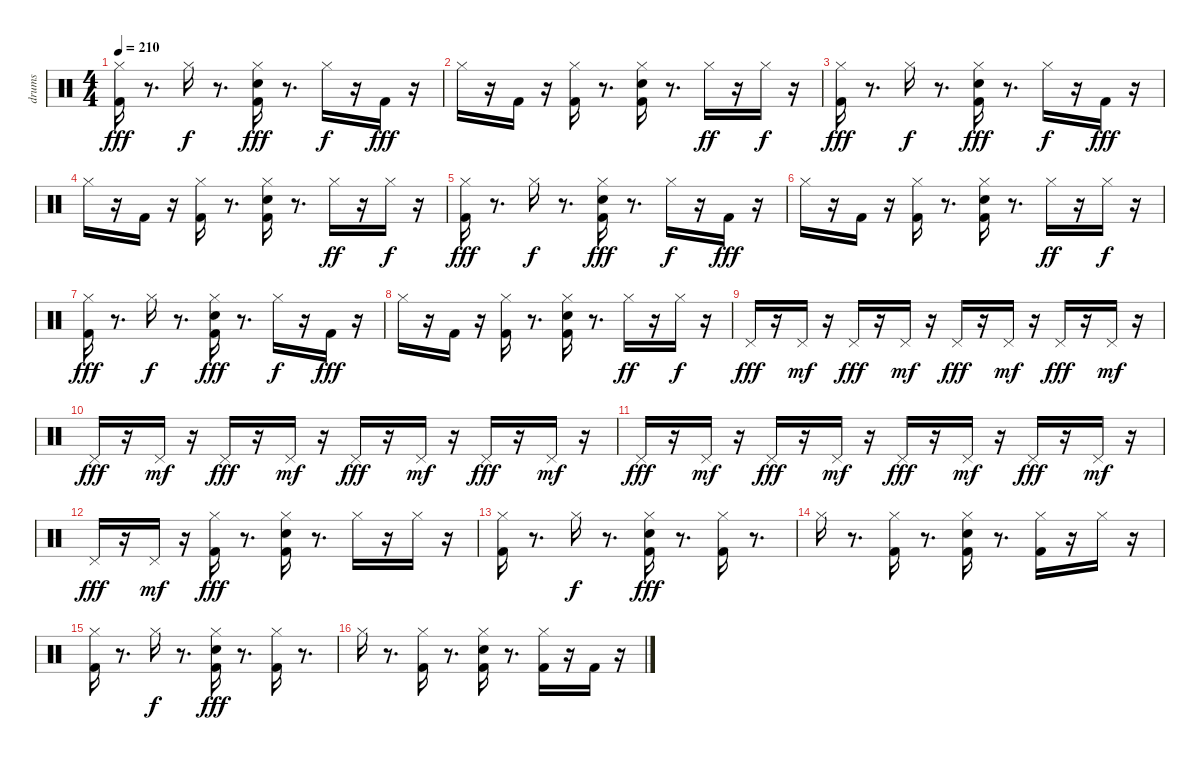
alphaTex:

\track ("drums" "drums") {instrument percussion}
\staff {score}
\articulation defaults
\ts (4 4)
\tempo 210
\clef neutral
\ks c
("Hi-Hat (closed)" "Kick (hit) 2").16{dy fff} r.8{d} "Hi-Hat (closed)".16{dy f} r.8{d} ("Electric Snare (hit)" "Hi-Hat (closed)" "Kick (hit) 2").16{dy fff} r.8{d} "Hi-Hat (closed)".16{dy f} r.16 "Kick (hit) 2".16{dy fff} r.16 |
"Hi-Hat (closed)".16 r.16 "Kick (hit) 2".16 r.16 ("Hi-Hat (closed)" "Kick (hit) 2").16 r.8{d} ("Electric Snare (hit)" "Hi-Hat (closed)" "Kick (hit) 2").16 r.8{d} "Hi-Hat (closed)".16{dy ff} r.16 "Hi-Hat (closed)".16{dy f} r.16 |
("Hi-Hat (closed)" "Kick (hit) 2").16{dy fff} r.8{d} "Hi-Hat (closed)".16{dy f} r.8{d} ("Electric Snare (hit)" "Hi-Hat (closed)" "Kick (hit) 2").16{dy fff} r.8{d} "Hi-Hat (closed)".16{dy f} r.16 "Kick (hit) 2".16{dy fff} r.16 |
"Hi-Hat (closed)".16 r.16 "Kick (hit) 2".16 r.16 ("Hi-Hat (closed)" "Kick (hit) 2").16 r.8{d} ("Electric Snare (hit)" "Hi-Hat (closed)" "Kick (hit) 2").16 r.8{d} "Hi-Hat (closed)".16{dy ff} r.16 "Hi-Hat (closed)".16{dy f} r.16 |
("Hi-Hat (closed)" "Kick (hit) 2").16{dy fff} r.8{d} "Hi-Hat (closed)".16{dy f} r.8{d} ("Electric Snare (hit)" "Hi-Hat (closed)" "Kick (hit) 2").16{dy fff} r.8{d} "Hi-Hat (closed)".16{dy f} r.16 "Kick (hit) 2".16{dy fff} r.16 |
"Hi-Hat (closed)".16 r.16 "Kick (hit) 2".16 r.16 ("Hi-Hat (closed)" "Kick (hit) 2").16 r.8{d} ("Electric Snare (hit)" "Hi-Hat (closed)" "Kick (hit) 2").16 r.8{d} "Hi-Hat (closed)".16{dy ff} r.16 "Hi-Hat (closed)".16{dy f} r.16 |
("Hi-Hat (closed)" "Kick (hit) 2").16{dy fff} r.8{d} "Hi-Hat (closed)".16{dy f} r.8{d} ("Electric Snare (hit)" "Hi-Hat (closed)" "Kick (hit) 2").16{dy fff} r.8{d} "Hi-Hat (closed)".16{dy f} r.16 "Kick (hit) 2".16{dy fff} r.16 |
"Hi-Hat (closed)".16 r.16 "Kick (hit) 2".16 r.16 ("Hi-Hat (closed)" "Kick (hit) 2").16 r.8{d} ("Electric Snare (hit)" "Hi-Hat (closed)" "Kick (hit) 2").16 r.8{d} "Hi-Hat (closed)".16{dy ff} r.16 "Hi-Hat (closed)".16{dy f} r.16 |
"Pedal Hi-Hat (hit)".16{dy fff} r.16 "Pedal Hi-Hat (hit)".16{dy mf} r.16 "Pedal Hi-Hat (hit)".16{dy fff} r.16 "Pedal Hi-Hat (hit)".16{dy mf} r.16 "Pedal Hi-Hat (hit)".16{dy fff} r.16 "Pedal Hi-Hat (hit)".16{dy mf} r.16 "Pedal Hi-Hat (hit)".16{dy fff} r.16 "Pedal Hi-Hat (hit)".16{dy mf} r.16 |
"Pedal Hi-Hat (hit)".16{dy fff} r.16 "Pedal Hi-Hat (hit)".16{dy mf} r.16 "Pedal Hi-Hat (hit)".16{dy fff} r.16 "Pedal Hi-Hat (hit)".16{dy mf} r.16 "Pedal Hi-Hat (hit)".16{dy fff} r.16 "Pedal Hi-Hat (hit)".16{dy mf} r.16 "Pedal Hi-Hat (hit)".16{dy fff} r.16 "Pedal Hi-Hat (hit)".16{dy mf} r.16 |
"Pedal Hi-Hat (hit)".16{dy fff} r.16 "Pedal Hi-Hat (hit)".16{dy mf} r.16 "Pedal Hi-Hat (hit)".16{dy fff} r.16 "Pedal Hi-Hat (hit)".16{dy mf} r.16 "Pedal Hi-Hat (hit)".16{dy fff} r.16 "Pedal Hi-Hat (hit)".16{dy mf} r.16 "Pedal Hi-Hat (hit)".16{dy fff} r.16 "Pedal Hi-Hat (hit)".16{dy mf} r.16 |
"Pedal Hi-Hat (hit)".16{dy fff} r.16 "Pedal Hi-Hat (hit)".16{dy mf} r.16 ("Kick (hit) 2" "Hi-Hat (closed)").16{dy fff} r.8{d} ("Hi-Hat (closed)" "Electric Snare (hit)" "Kick (hit) 2").16 r.8{d} "Hi-Hat (closed)".16 r.16 "Hi-Hat (closed)".16 r.16 |
("Hi-Hat (closed)" "Kick (hit) 2").16 r.8{d} "Hi-Hat (closed)".16{dy f} r.8{d} ("Hi-Hat (closed)" "Electric Snare (hit)" "Kick (hit) 2").16{dy fff} r.8{d} ("Hi-Hat (closed)" "Kick (hit) 2").16 r.8{d} |
"Hi-Hat (closed)".16 r.8{d} ("Hi-Hat (closed)" "Kick (hit) 2").16 r.8{d} ("Hi-Hat (closed)" "Electric Snare (hit)" "Kick (hit) 2").16 r.8{d} ("Hi-Hat (closed)" "Kick (hit) 2").16 r.16 "Hi-Hat (closed)".16 r.16 |
("Kick (hit) 2" "Hi-Hat (closed)").16 r.8{d} "Hi-Hat (closed)".16{dy f} r.8{d} ("Hi-Hat (closed)" "Electric Snare (hit)" "Kick (hit) 2").16{dy fff} r.8{d} ("Hi-Hat (closed)" "Kick (hit) 2").16 r.8{d} |
"Hi-Hat (closed)".16 r.8{d} ("Hi-Hat (closed)" "Kick (hit) 2").16 r.8{d} ("Hi-Hat (closed)" "Electric Snare (hit)" "Kick (hit) 2").16 r.8{d} ("Hi-Hat (closed)" "Kick (hit) 2").16 r.16 "Kick (hit) 2".16 r.16
